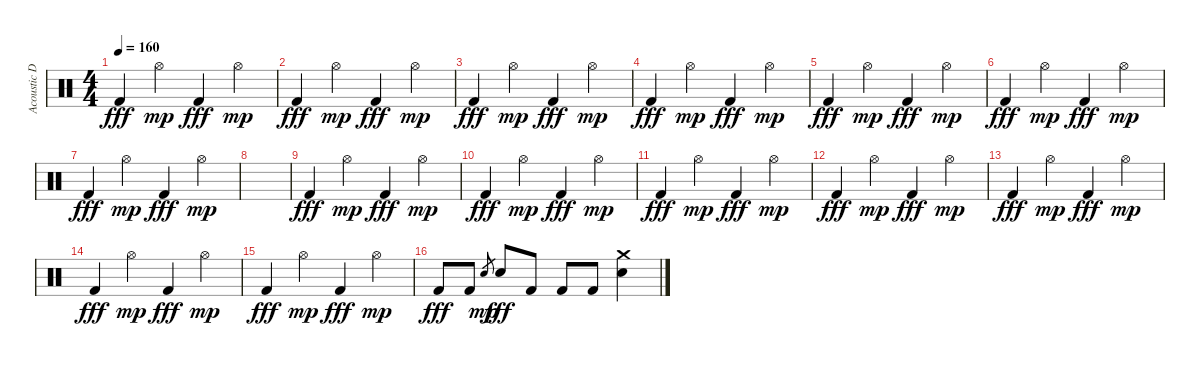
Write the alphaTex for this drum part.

\track ("Acoustic Drums" "Acoustic D") {instrument percussion}
\staff {score}
\articulation defaults
\ts (4 4)
\tempo 160
\clef neutral
\ks c "Kick (hit) 2".4{dy fff} "Hi-Hat (open)".4{dy mp} "Kick (hit) 2".4{dy fff} "Hi-Hat (open)".4{dy mp}
|
"Kick (hit) 2".4{dy fff} "Hi-Hat (open)".4{dy mp} "Kick (hit) 2".4{dy fff} "Hi-Hat (open)".4{dy mp} |
"Kick (hit) 2".4{dy fff} "Hi-Hat (open)".4{dy mp} "Kick (hit) 2".4{dy fff} "Hi-Hat (open)".4{dy mp} |
"Kick (hit) 2".4{dy fff} "Hi-Hat (open)".4{dy mp} "Kick (hit) 2".4{dy fff} "Hi-Hat (open)".4{dy mp} |
"Kick (hit) 2".4{dy fff} "Hi-Hat (open)".4{dy mp} "Kick (hit) 2".4{dy fff} "Hi-Hat (open)".4{dy mp} |
"Kick (hit) 2".4{dy fff} "Hi-Hat (open)".4{dy mp} "Kick (hit) 2".4{dy fff} "Hi-Hat (open)".4{dy mp} |
"Kick (hit) 2".4{dy fff} "Hi-Hat (open)".4{dy mp} "Kick (hit) 2".4{dy fff} "Hi-Hat (open)".4{dy mp} |
|
"Kick (hit) 2".4{dy fff} "Hi-Hat (open)".4{dy mp} "Kick (hit) 2".4{dy fff} "Hi-Hat (open)".4{dy mp} |
"Kick (hit) 2".4{dy fff} "Hi-Hat (open)".4{dy mp} "Kick (hit) 2".4{dy fff} "Hi-Hat (open)".4{dy mp} |
"Kick (hit) 2".4{dy fff} "Hi-Hat (open)".4{dy mp} "Kick (hit) 2".4{dy fff} "Hi-Hat (open)".4{dy mp} |
"Kick (hit) 2".4{dy fff} "Hi-Hat (open)".4{dy mp} "Kick (hit) 2".4{dy fff} "Hi-Hat (open)".4{dy mp} |
"Kick (hit) 2".4{dy fff} "Hi-Hat (open)".4{dy mp} "Kick (hit) 2".4{dy fff} "Hi-Hat (open)".4{dy mp} |
"Kick (hit) 2".4{dy fff} "Hi-Hat (open)".4{dy mp} "Kick (hit) 2".4{dy fff} "Hi-Hat (open)".4{dy mp} |
"Kick (hit) 2".4{dy fff} "Hi-Hat (open)".4{dy mp} "Kick (hit) 2".4{dy fff} "Hi-Hat (open)".4{dy mp} |
"Kick (hit) 2".8{dy fff volume 13} "Kick (hit) 2".8 "Snare (hit) 2".8{gr dy mp} "Snare (hit) 2".8{dy fff} "Kick (hit) 2".8 "Kick (hit) 2".8 "Kick (hit) 2".8 ("Crash medium (hit)" "Snare (hit) 2").4
